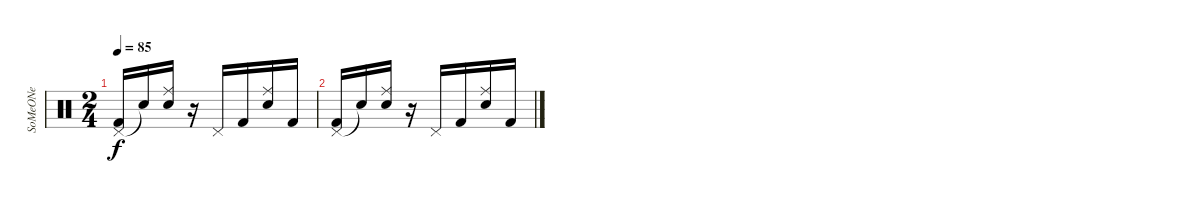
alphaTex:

\track ("SoMeONe" "SoMeONe") {instrument percussion}
\staff {score}
\articulation defaults
\ts (2 4)
\tempo 85
\clef neutral
\ks c
("Pedal Hi-Hat (hit)" "Kick (hit) 2").16{dy f} "Snare (hit)"{t}.16 ("Ride (middle)" "Electric Snare (hit)").16 r.16 "Pedal Hi-Hat (hit)".16 "Kick (hit) 2".16 ("Ride (middle)" "Electric Snare (hit)").16 "Kick (hit) 2".16 |
("Pedal Hi-Hat (hit)" "Kick (hit) 2").16 "Snare (hit)"{t}.16 ("Ride (middle)" "Electric Snare (hit)").16 r.16 "Pedal Hi-Hat (hit)".16 "Kick (hit) 2".16 ("Ride (middle)" "Electric Snare (hit)").16 "Kick (hit) 2".16
